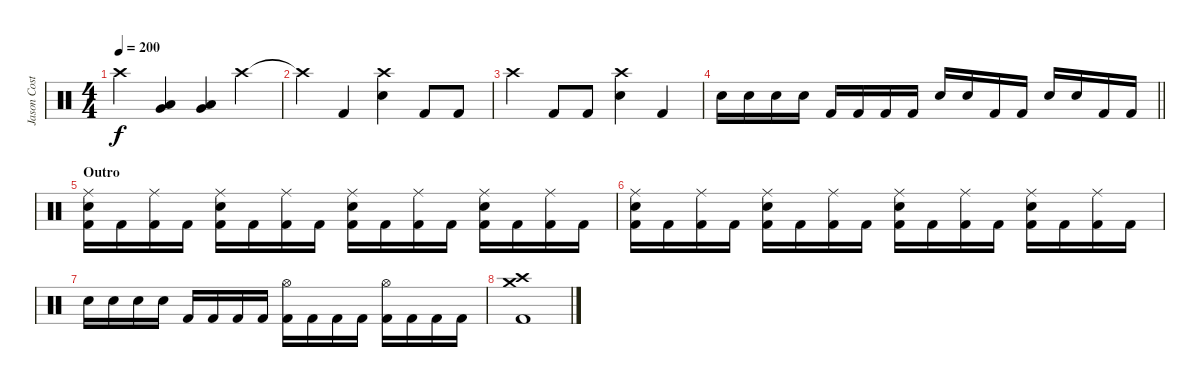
\track ("Jason Costa" "Jason Cost") {instrument percussion}
\staff {score}
\articulation defaults
\ts (4 4)
\tempo 200
\clef neutral
\ks c "Crash high (hit)".4{dy f}
("Very Low Tom (hit)" "Low Floor Tom (hit)").4 ("Very Low Tom (hit)" "Low Floor Tom (hit)").4 "Crash high (hit)".4 |
"Crash high (hit)"{t}.4 "Kick (hit) 2".4 ("Crash high (hit)" "Electric Snare (hit)").4 "Kick (hit) 2".8 "Kick (hit) 2".8 |
"Crash high (hit)".4 "Kick (hit) 2".8 "Kick (hit) 2".8 ("Crash high (hit)" "Electric Snare (hit)").4 "Kick (hit) 2".4 |
\barLineRight lightlight "Electric Snare (hit)".16 "Electric Snare (hit)".16 "Electric Snare (hit)".16 "Electric Snare (hit)".16 "Kick (hit) 2".16 "Kick (hit) 2".16 "Kick (hit) 2".16 "Kick (hit) 2".16 "Electric Snare (hit)".16 "Electric Snare (hit)".16 "Kick (hit) 2".16 "Kick (hit) 2".16 "Electric Snare (hit)".16 "Electric Snare (hit)".16 "Kick (hit) 2".16 "Kick (hit) 2".16
|
\section ("" "Outro")
("Ride (middle)" "Electric Snare (hit)" "Kick (hit) 2").16 "Kick (hit) 2".16 ("Ride (middle)" "Kick (hit) 2").16 "Kick (hit) 2".16 ("Ride (middle)" "Electric Snare (hit)" "Kick (hit) 2").16 "Kick (hit) 2".16 ("Ride (middle)" "Kick (hit) 2").16 "Kick (hit) 2".16 ("Ride (middle)" "Electric Snare (hit)" "Kick (hit) 2").16 "Kick (hit) 2".16 ("Ride (middle)" "Kick (hit) 2").16 "Kick (hit) 2".16 ("Ride (middle)" "Electric Snare (hit)" "Kick (hit) 2").16 "Kick (hit) 2".16 ("Ride (middle)" "Kick (hit) 2").16 "Kick (hit) 2".16 |
("Ride (middle)" "Electric Snare (hit)" "Kick (hit) 2").16 "Kick (hit) 2".16 ("Ride (middle)" "Kick (hit) 2").16 "Kick (hit) 2".16 ("Ride (middle)" "Electric Snare (hit)" "Kick (hit) 2").16 "Kick (hit) 2".16 ("Ride (middle)" "Kick (hit) 2").16 "Kick (hit) 2".16 ("Ride (middle)" "Electric Snare (hit)" "Kick (hit) 2").16 "Kick (hit) 2".16 ("Ride (middle)" "Kick (hit) 2").16 "Kick (hit) 2".16 ("Ride (middle)" "Electric Snare (hit)" "Kick (hit) 2").16 "Kick (hit) 2".16 ("Ride (middle)" "Kick (hit) 2").16 "Kick (hit) 2".16 |
"Electric Snare (hit)".16 "Electric Snare (hit)".16 "Electric Snare (hit)".16 "Electric Snare (hit)".16 "Kick (hit) 2".16 "Kick (hit) 2".16 "Kick (hit) 2".16 "Kick (hit) 2".16 ("Hi-Hat (open)" "Kick (hit) 2").16 "Kick (hit) 2".16 "Kick (hit) 2".16 "Kick (hit) 2".16 ("Hi-Hat (open)" "Kick (hit) 2").16 "Kick (hit) 2".16 "Kick (hit) 2".16 "Kick (hit) 2".16 |
("Crash high (hit)" "Crash medium (hit)" "Kick (hit) 2").1
